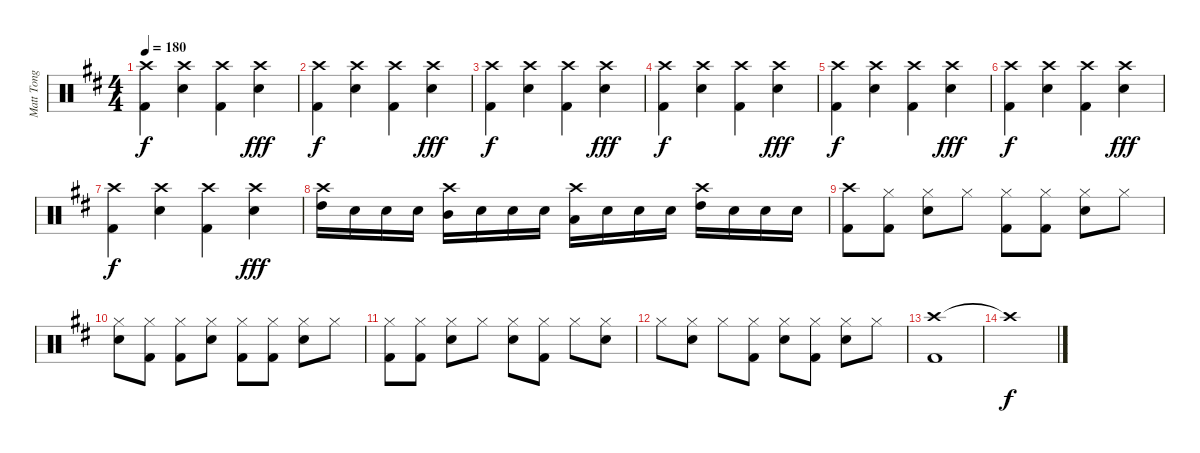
\track ("Matt Tong" "Matt Tong") {instrument percussion}
\staff {score}
\articulation defaults
\ts (4 4)
\tempo 180
\clef neutral
\ks d
("Crash high (hit)" "Kick (hit) 2").4{dy f} ("Crash high (hit)" "Electric Snare (hit)").4 ("Crash high (hit)" "Kick (hit) 2").4 ("Crash high (hit)" "Electric Snare (hit)").4{dy fff} |
("Crash high (hit)" "Kick (hit) 2").4{dy f} ("Crash high (hit)" "Electric Snare (hit)").4 ("Crash high (hit)" "Kick (hit) 2").4 ("Crash high (hit)" "Electric Snare (hit)").4{dy fff} |
("Crash high (hit)" "Kick (hit) 2").4{dy f} ("Crash high (hit)" "Electric Snare (hit)").4 ("Crash high (hit)" "Kick (hit) 2").4 ("Crash high (hit)" "Electric Snare (hit)").4{dy fff} |
("Crash high (hit)" "Kick (hit) 2").4{dy f} ("Crash high (hit)" "Electric Snare (hit)").4 ("Crash high (hit)" "Kick (hit) 2").4 ("Crash high (hit)" "Electric Snare (hit)").4{dy fff} |
("Crash high (hit)" "Kick (hit) 2").4{dy f} ("Crash high (hit)" "Electric Snare (hit)").4 ("Crash high (hit)" "Kick (hit) 2").4 ("Crash high (hit)" "Electric Snare (hit)").4{dy fff} |
("Crash high (hit)" "Kick (hit) 2").4{dy f} ("Crash high (hit)" "Electric Snare (hit)").4 ("Crash high (hit)" "Kick (hit) 2").4 ("Crash high (hit)" "Electric Snare (hit)").4{dy fff} |
("Crash high (hit)" "Kick (hit) 2").4{dy f} ("Crash high (hit)" "Electric Snare (hit)").4 ("Crash high (hit)" "Kick (hit) 2").4 ("Crash high (hit)" "Electric Snare (hit)").4{dy fff} |
("Crash high (hit)" "High Tom (hit)").16 "Electric Snare (hit)".16 "Electric Snare (hit)".16 "Electric Snare (hit)".16 ("Crash high (hit)" "Mid Tom (hit)").16 "Electric Snare (hit)".16 "Electric Snare (hit)".16 "Electric Snare (hit)".16 ("Crash high (hit)" "Low Tom (hit)").16 "Electric Snare (hit)".16 "Electric Snare (hit)".16 "Electric Snare (hit)".16 ("Crash high (hit)" "High Tom (hit)").16 "Electric Snare (hit)".16 "Electric Snare (hit)".16 "Electric Snare (hit)".16 |
("Crash high (hit)" "Kick (hit) 2").8 ("Hi-Hat (closed)" "Kick (hit) 2").8 ("Hi-Hat (closed)" "Electric Snare (hit)").8 "Hi-Hat (closed)".8 ("Hi-Hat (closed)" "Kick (hit) 2").8 ("Hi-Hat (closed)" "Kick (hit) 2").8 ("Hi-Hat (closed)" "Electric Snare (hit)").8 "Hi-Hat (closed)".8 |
("Hi-Hat (closed)" "Electric Snare (hit)").8 ("Hi-Hat (closed)" "Kick (hit) 2").8 ("Hi-Hat (closed)" "Kick (hit) 2").8 ("Hi-Hat (closed)" "Electric Snare (hit)").8 ("Hi-Hat (closed)" "Kick (hit) 2").8 ("Hi-Hat (closed)" "Kick (hit) 2").8 ("Hi-Hat (closed)" "Electric Snare (hit)").8 "Hi-Hat (closed)".8 |
("Hi-Hat (closed)" "Kick (hit) 2").8 ("Hi-Hat (closed)" "Kick (hit) 2").8 ("Hi-Hat (closed)" "Electric Snare (hit)").8 "Hi-Hat (closed)".8 ("Hi-Hat (closed)" "Electric Snare (hit)").8 ("Hi-Hat (closed)" "Kick (hit) 2").8 "Hi-Hat (closed)".8 ("Hi-Hat (closed)" "Electric Snare (hit)").8 |
"Hi-Hat (closed)".8 ("Hi-Hat (closed)" "Electric Snare (hit)").8 "Hi-Hat (closed)".8 ("Hi-Hat (closed)" "Kick (hit) 2").8 ("Hi-Hat (closed)" "Electric Snare (hit)").8 ("Hi-Hat (closed)" "Kick (hit) 2").8 ("Hi-Hat (closed)" "Electric Snare (hit)").8 "Hi-Hat (closed)".8 |
("Crash high (hit)" "Kick (hit) 2").1 |
"Crash high (hit)"{t}.1{dy f}
